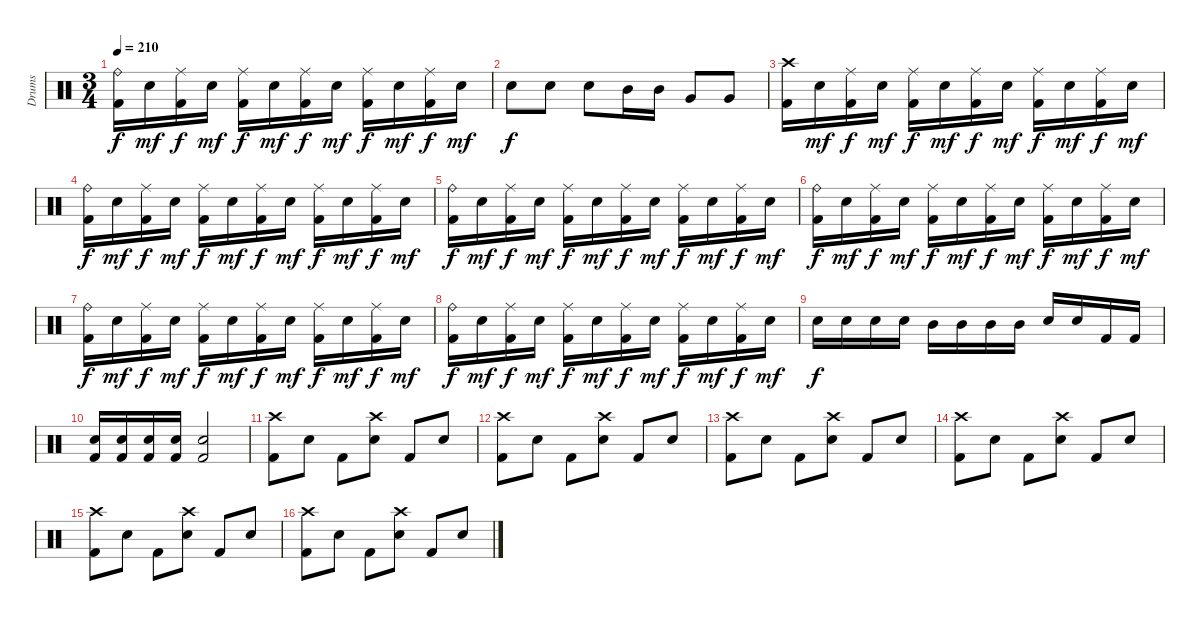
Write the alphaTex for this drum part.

\track ("Drums" "Drums") {instrument percussion}
\staff {score}
\articulation defaults
\ts (3 4)
\tempo 210
\clef neutral
\ks c
("Ride (bell)" "Kick (hit) 2").16{dy f} "Electric Snare (hit)".16{dy mf} ("Ride (middle)" "Kick (hit) 2").16{dy f} "Electric Snare (hit)".16{dy mf} ("Ride (middle)" "Kick (hit) 2").16{dy f} "Electric Snare (hit)".16{dy mf} ("Ride (middle)" "Kick (hit) 2").16{dy f} "Electric Snare (hit)".16{dy mf} ("Ride (middle)" "Kick (hit) 2").16{dy f} "Electric Snare (hit)".16{dy mf} ("Ride (middle)" "Kick (hit) 2").16{dy f} "Electric Snare (hit)".16{dy mf} |
"Electric Snare (hit)".8{dy f} "Electric Snare (hit)".8 "Electric Snare (hit)".8 "Mid Tom (hit)".16 "Mid Tom (hit)".16 "Very Low Tom (hit)".8 "Very Low Tom (hit)".8 |
("Crash high (hit)" "Kick (hit) 2").16 "Electric Snare (hit)".16{dy mf} ("Ride (middle)" "Kick (hit) 2").16{dy f} "Electric Snare (hit)".16{dy mf} ("Ride (middle)" "Kick (hit) 2").16{dy f} "Electric Snare (hit)".16{dy mf} ("Ride (middle)" "Kick (hit) 2").16{dy f} "Electric Snare (hit)".16{dy mf} ("Ride (middle)" "Kick (hit) 2").16{dy f} "Electric Snare (hit)".16{dy mf} ("Ride (middle)" "Kick (hit) 2").16{dy f} "Electric Snare (hit)".16{dy mf} |
("Ride (bell)" "Kick (hit) 2").16{dy f} "Electric Snare (hit)".16{dy mf} ("Ride (middle)" "Kick (hit) 2").16{dy f} "Electric Snare (hit)".16{dy mf} ("Ride (middle)" "Kick (hit) 2").16{dy f} "Electric Snare (hit)".16{dy mf} ("Ride (middle)" "Kick (hit) 2").16{dy f} "Electric Snare (hit)".16{dy mf} ("Ride (middle)" "Kick (hit) 2").16{dy f} "Electric Snare (hit)".16{dy mf} ("Ride (middle)" "Kick (hit) 2").16{dy f} "Electric Snare (hit)".16{dy mf} |
("Ride (bell)" "Kick (hit) 2").16{dy f} "Electric Snare (hit)".16{dy mf} ("Ride (middle)" "Kick (hit) 2").16{dy f} "Electric Snare (hit)".16{dy mf} ("Ride (middle)" "Kick (hit) 2").16{dy f} "Electric Snare (hit)".16{dy mf} ("Ride (middle)" "Kick (hit) 2").16{dy f} "Electric Snare (hit)".16{dy mf} ("Ride (middle)" "Kick (hit) 2").16{dy f} "Electric Snare (hit)".16{dy mf} ("Ride (middle)" "Kick (hit) 2").16{dy f} "Electric Snare (hit)".16{dy mf} |
("Ride (bell)" "Kick (hit) 2").16{dy f} "Electric Snare (hit)".16{dy mf} ("Ride (middle)" "Kick (hit) 2").16{dy f} "Electric Snare (hit)".16{dy mf} ("Ride (middle)" "Kick (hit) 2").16{dy f} "Electric Snare (hit)".16{dy mf} ("Ride (middle)" "Kick (hit) 2").16{dy f} "Electric Snare (hit)".16{dy mf} ("Ride (middle)" "Kick (hit) 2").16{dy f} "Electric Snare (hit)".16{dy mf} ("Ride (middle)" "Kick (hit) 2").16{dy f} "Electric Snare (hit)".16{dy mf} |
("Ride (bell)" "Kick (hit) 2").16{dy f} "Electric Snare (hit)".16{dy mf} ("Ride (middle)" "Kick (hit) 2").16{dy f} "Electric Snare (hit)".16{dy mf} ("Ride (middle)" "Kick (hit) 2").16{dy f} "Electric Snare (hit)".16{dy mf} ("Ride (middle)" "Kick (hit) 2").16{dy f} "Electric Snare (hit)".16{dy mf} ("Ride (middle)" "Kick (hit) 2").16{dy f} "Electric Snare (hit)".16{dy mf} ("Ride (middle)" "Kick (hit) 2").16{dy f} "Electric Snare (hit)".16{dy mf} |
("Ride (bell)" "Kick (hit) 2").16{dy f} "Electric Snare (hit)".16{dy mf} ("Ride (middle)" "Kick (hit) 2").16{dy f} "Electric Snare (hit)".16{dy mf} ("Ride (middle)" "Kick (hit) 2").16{dy f} "Electric Snare (hit)".16{dy mf} ("Ride (middle)" "Kick (hit) 2").16{dy f} "Electric Snare (hit)".16{dy mf} ("Ride (middle)" "Kick (hit) 2").16{dy f} "Electric Snare (hit)".16{dy mf} ("Ride (middle)" "Kick (hit) 2").16{dy f} "Electric Snare (hit)".16{dy mf} |
"Electric Snare (hit)".16{dy f} "Electric Snare (hit)".16 "Electric Snare (hit)".16 "Electric Snare (hit)".16 "Mid Tom (hit)".16 "Mid Tom (hit)".16 "Mid Tom (hit)".16 "Mid Tom (hit)".16 "Electric Snare (hit)".16 "Electric Snare (hit)".16 "Kick (hit) 2".16 "Kick (hit) 2".16 |
("Electric Snare (hit)" "Kick (hit) 2").16 ("Electric Snare (hit)" "Kick (hit) 2").16 ("Electric Snare (hit)" "Kick (hit) 2").16 ("Electric Snare (hit)" "Kick (hit) 2").16 ("Electric Snare (hit)" "Kick (hit) 2").2 |
("Crash high (hit)" "Kick (hit) 2").8 "Electric Snare (hit)".8 "Kick (hit) 2".8 ("Crash high (hit)" "Electric Snare (hit)").8 "Kick (hit) 2".8 "Electric Snare (hit)".8 |
("Crash high (hit)" "Kick (hit) 2").8 "Electric Snare (hit)".8 "Kick (hit) 2".8 ("Crash high (hit)" "Electric Snare (hit)").8 "Kick (hit) 2".8 "Electric Snare (hit)".8 |
("Crash high (hit)" "Kick (hit) 2").8 "Electric Snare (hit)".8 "Kick (hit) 2".8 ("Crash high (hit)" "Electric Snare (hit)").8 "Kick (hit) 2".8 "Electric Snare (hit)".8 |
("Crash high (hit)" "Kick (hit) 2").8 "Electric Snare (hit)".8 "Kick (hit) 2".8 ("Crash high (hit)" "Electric Snare (hit)").8 "Kick (hit) 2".8 "Electric Snare (hit)".8 |
("Crash high (hit)" "Kick (hit) 2").8 "Electric Snare (hit)".8 "Kick (hit) 2".8 ("Crash high (hit)" "Electric Snare (hit)").8 "Kick (hit) 2".8 "Electric Snare (hit)".8 |
("Crash high (hit)" "Kick (hit) 2").8 "Electric Snare (hit)".8 "Kick (hit) 2".8 ("Crash high (hit)" "Electric Snare (hit)").8 "Kick (hit) 2".8 "Electric Snare (hit)".8
